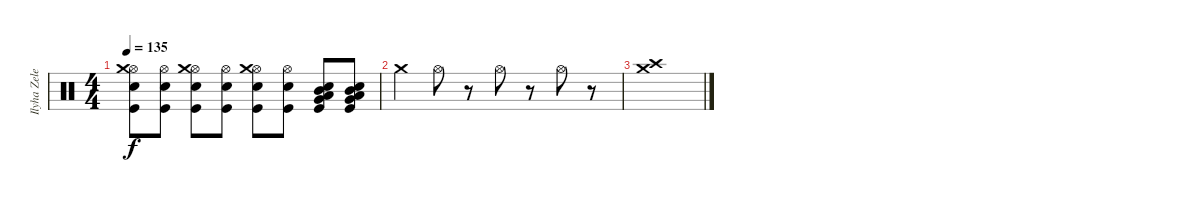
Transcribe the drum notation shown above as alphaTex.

\track ("Ilyha Zelenyi (DRUMS)" "Ilyha Zele") {instrument percussion}
\staff {score}
\articulation defaults
\ts (4 4)
\tempo 135
\clef neutral
\ks c
("Hi-Hat (open)" "Crash medium (hit)" "Kick (hit)" "Electric Snare (hit)").8{dy f} ("Hi-Hat (open)" "Kick (hit)" "Electric Snare (hit)").8 ("Hi-Hat (open)" "Crash medium (hit)" "Kick (hit)" "Electric Snare (hit)").8 ("Hi-Hat (open)" "Kick (hit)" "Electric Snare (hit)").8 ("Hi-Hat (open)" "Crash medium (hit)" "Kick (hit)" "Electric Snare (hit)").8 ("Hi-Hat (open)" "Kick (hit)" "Electric Snare (hit)").8 ("Mid Tom (hit)" "Very Low Tom (hit)" "Low Floor Tom (hit)" "Kick (hit)" "Electric Snare (hit)").8 ("Mid Tom (hit)" "Very Low Tom (hit)" "Low Floor Tom (hit)" "Kick (hit)" "Electric Snare (hit)").8 |
"Crash medium (hit)".4 "Hi-Hat (open)".8 r.8 "Hi-Hat (open)".8 r.8 "Hi-Hat (open)".8 r.8 |
("Crash high (hit)" "Crash medium (hit)").1
